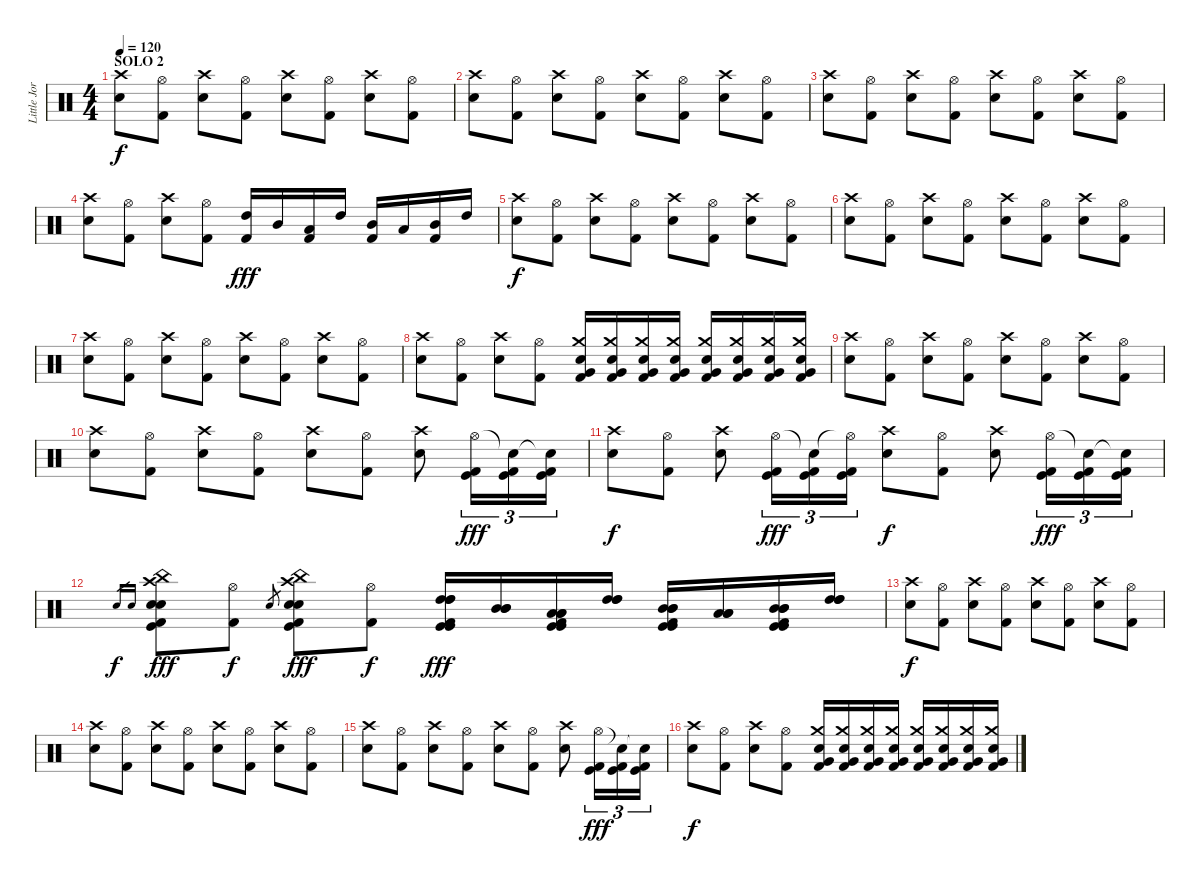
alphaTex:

\track ("Little Jordison" "Little Jor") {instrument percussion}
\staff {score}
\articulation defaults
\ts (4 4)
\section ("" "SOLO 2")
\tempo 120
\clef neutral
\ks c
("Crash high (hit)" "Electric Snare (hit)").8{dy f volume 13} ("Hi-Hat (open)" "Kick (hit) 2").8 ("Crash high (hit)" "Electric Snare (hit)").8 ("Hi-Hat (open)" "Kick (hit) 2").8 ("Crash high (hit)" "Electric Snare (hit)").8 ("Hi-Hat (open)" "Kick (hit) 2").8 ("Crash high (hit)" "Electric Snare (hit)").8 ("Hi-Hat (open)" "Kick (hit) 2").8 |
("Crash high (hit)" "Electric Snare (hit)").8 ("Hi-Hat (open)" "Kick (hit) 2").8 ("Crash high (hit)" "Electric Snare (hit)").8 ("Hi-Hat (open)" "Kick (hit) 2").8 ("Crash high (hit)" "Electric Snare (hit)").8 ("Hi-Hat (open)" "Kick (hit) 2").8 ("Crash high (hit)" "Electric Snare (hit)").8 ("Hi-Hat (open)" "Kick (hit) 2").8 |
("Crash high (hit)" "Electric Snare (hit)").8 ("Hi-Hat (open)" "Kick (hit) 2").8 ("Crash high (hit)" "Electric Snare (hit)").8 ("Hi-Hat (open)" "Kick (hit) 2").8 ("Crash high (hit)" "Electric Snare (hit)").8 ("Hi-Hat (open)" "Kick (hit) 2").8 ("Crash high (hit)" "Electric Snare (hit)").8 ("Hi-Hat (open)" "Kick (hit) 2").8 |
("Crash high (hit)" "Electric Snare (hit)").8 ("Hi-Hat (open)" "Kick (hit) 2").8 ("Crash high (hit)" "Electric Snare (hit)").8 ("Hi-Hat (open)" "Kick (hit) 2").8 ("High Tom (hit)" "Kick (hit) 2").16{dy fff} "Mid Tom (hit)".16 ("Low Tom (hit)" "Kick (hit) 2").16 "High Tom (hit)".16 ("Mid Tom (hit)" "Kick (hit) 2").16 "Low Tom (hit)".16 ("Mid Tom (hit)" "Kick (hit) 2").16 "High Tom (hit)".16 |
("Crash high (hit)" "Electric Snare (hit)").8{dy f} ("Hi-Hat (open)" "Kick (hit) 2").8 ("Crash high (hit)" "Electric Snare (hit)").8 ("Hi-Hat (open)" "Kick (hit) 2").8 ("Crash high (hit)" "Electric Snare (hit)").8 ("Hi-Hat (open)" "Kick (hit) 2").8 ("Crash high (hit)" "Electric Snare (hit)").8 ("Hi-Hat (open)" "Kick (hit) 2").8 |
("Crash high (hit)" "Electric Snare (hit)").8 ("Hi-Hat (open)" "Kick (hit) 2").8 ("Crash high (hit)" "Electric Snare (hit)").8 ("Hi-Hat (open)" "Kick (hit) 2").8 ("Crash high (hit)" "Electric Snare (hit)").8 ("Hi-Hat (open)" "Kick (hit) 2").8 ("Crash high (hit)" "Electric Snare (hit)").8 ("Hi-Hat (open)" "Kick (hit) 2").8 |
("Crash high (hit)" "Electric Snare (hit)").8 ("Hi-Hat (open)" "Kick (hit) 2").8 ("Crash high (hit)" "Electric Snare (hit)").8 ("Hi-Hat (open)" "Kick (hit) 2").8 ("Crash high (hit)" "Electric Snare (hit)").8 ("Hi-Hat (open)" "Kick (hit) 2").8 ("Crash high (hit)" "Electric Snare (hit)").8 ("Hi-Hat (open)" "Kick (hit) 2").8 |
("Crash high (hit)" "Electric Snare (hit)").8 ("Hi-Hat (open)" "Kick (hit) 2").8 ("Crash high (hit)" "Electric Snare (hit)").8 ("Hi-Hat (open)" "Kick (hit) 2").8 ("Crash medium (hit)" "Very Low Tom (hit)" "Electric Snare (hit)" "Kick (hit) 2").16 ("Crash medium (hit)" "Very Low Tom (hit)" "Electric Snare (hit)" "Kick (hit) 2").16 ("Crash medium (hit)" "Very Low Tom (hit)" "Electric Snare (hit)" "Kick (hit) 2").16 ("Crash medium (hit)" "Very Low Tom (hit)" "Electric Snare (hit)" "Kick (hit) 2").16 ("Crash medium (hit)" "Very Low Tom (hit)" "Electric Snare (hit)" "Kick (hit) 2").16 ("Crash medium (hit)" "Very Low Tom (hit)" "Electric Snare (hit)" "Kick (hit) 2").16 ("Crash medium (hit)" "Very Low Tom (hit)" "Electric Snare (hit)" "Kick (hit) 2").16 ("Crash medium (hit)" "Very Low Tom (hit)" "Electric Snare (hit)" "Kick (hit) 2").16 |
("Crash high (hit)" "Electric Snare (hit)").8{volume 13} ("Hi-Hat (open)" "Kick (hit) 2").8 ("Crash high (hit)" "Electric Snare (hit)").8 ("Hi-Hat (open)" "Kick (hit) 2").8 ("Crash high (hit)" "Electric Snare (hit)").8 ("Hi-Hat (open)" "Kick (hit) 2").8 ("Crash high (hit)" "Electric Snare (hit)").8 ("Hi-Hat (open)" "Kick (hit) 2").8 |
("Crash high (hit)" "Electric Snare (hit)").8 ("Hi-Hat (open)" "Kick (hit) 2").8 ("Crash high (hit)" "Electric Snare (hit)").8 ("Hi-Hat (open)" "Kick (hit) 2").8 ("Crash high (hit)" "Electric Snare (hit)").8 ("Hi-Hat (open)" "Kick (hit) 2").8 ("Crash high (hit)" "Electric Snare (hit)").8 ("Hi-Hat (open)" "Kick (hit)" "Kick (hit) 2").16{tu (3 2) dy fff} ("Snare (hit)"{t} "Kick (hit)" "Kick (hit) 2").16{tu (3 2)} ("Snare (hit)"{t} "Kick (hit)" "Kick (hit) 2").16{tu (3 2)} |
("Crash high (hit)" "Electric Snare (hit)").8{dy f} ("Hi-Hat (open)" "Kick (hit) 2").8 ("Crash high (hit)" "Electric Snare (hit)").8 ("Hi-Hat (open)" "Kick (hit)" "Kick (hit) 2").16{tu (3 2) dy fff} ("Snare (hit)"{t} "Kick (hit)" "Kick (hit) 2").16{tu (3 2)} ("Hi-Hat (open)"{t} "Kick (hit)" "Kick (hit) 2").16{tu (3 2)} ("Crash high (hit)" "Electric Snare (hit)").8{dy f} ("Hi-Hat (open)" "Kick (hit) 2").8 ("Crash high (hit)" "Electric Snare (hit)").8 ("Hi-Hat (open)" "Kick (hit)" "Kick (hit) 2").16{tu (3 2) dy fff} ("Snare (hit)"{t} "Kick (hit)" "Kick (hit) 2").16{tu (3 2)} ("Snare (hit)"{t} "Kick (hit)" "Kick (hit) 2").16{tu (3 2)} |
"Electric Snare (hit)".16{gr dy f} "Electric Snare (hit)".16{gr} ("Crash high (hit)" "China (hit)" "Kick (hit)" "Kick (hit) 2" "Electric Snare (hit)" "Electric Snare (hit)").8{dy fff} ("Hi-Hat (open)" "Kick (hit) 2").8{dy f} "Electric Snare (hit)".8{gr} ("Crash high (hit)" "China (hit)" "Kick (hit)" "Kick (hit) 2" "Electric Snare (hit)" "Electric Snare (hit)").8{dy fff} ("Hi-Hat (open)" "Kick (hit) 2").8{dy f} ("High Tom (hit)" "High Tom (hit)" "High Tom (hit)" "Kick (hit)" "Kick (hit)" "Kick (hit) 2").16{dy fff} ("Mid Tom (hit)" "Mid Tom (hit)" "Mid Tom (hit)").16 ("Low Tom (hit)" "Low Tom (hit)" "Low Tom (hit)" "Kick (hit)" "Kick (hit)" "Kick (hit) 2").16 ("High Tom (hit)" "High Tom (hit)" "High Tom (hit)").16 ("Mid Tom (hit)" "Mid Tom (hit)" "Mid Tom (hit)" "Kick (hit)" "Kick (hit)" "Kick (hit) 2").16 ("Low Tom (hit)" "Low Tom (hit)" "Low Tom (hit)").16 ("Mid Tom (hit)" "Mid Tom (hit)" "Mid Tom (hit)" "Kick (hit)" "Kick (hit)" "Kick (hit) 2").16 ("High Tom (hit)" "High Tom (hit)" "High Tom (hit)").16 |
("Crash high (hit)" "Electric Snare (hit)").8{dy f} ("Hi-Hat (open)" "Kick (hit) 2").8 ("Crash high (hit)" "Electric Snare (hit)").8 ("Hi-Hat (open)" "Kick (hit) 2").8 ("Crash high (hit)" "Electric Snare (hit)").8 ("Hi-Hat (open)" "Kick (hit) 2").8 ("Crash high (hit)" "Electric Snare (hit)").8 ("Hi-Hat (open)" "Kick (hit) 2").8 |
("Crash high (hit)" "Electric Snare (hit)").8 ("Hi-Hat (open)" "Kick (hit) 2").8 ("Crash high (hit)" "Electric Snare (hit)").8 ("Hi-Hat (open)" "Kick (hit) 2").8 ("Crash high (hit)" "Electric Snare (hit)").8 ("Hi-Hat (open)" "Kick (hit) 2").8 ("Crash high (hit)" "Electric Snare (hit)").8 ("Hi-Hat (open)" "Kick (hit) 2").8 |
("Crash high (hit)" "Electric Snare (hit)").8 ("Hi-Hat (open)" "Kick (hit) 2").8 ("Crash high (hit)" "Electric Snare (hit)").8 ("Hi-Hat (open)" "Kick (hit) 2").8 ("Crash high (hit)" "Electric Snare (hit)").8 ("Hi-Hat (open)" "Kick (hit) 2").8 ("Crash high (hit)" "Electric Snare (hit)").8 ("Hi-Hat (open)" "Kick (hit)" "Kick (hit) 2").16{tu (3 2) dy fff} ("Snare (hit)"{t} "Kick (hit)" "Kick (hit) 2").16{tu (3 2)} ("Snare (hit)"{t} "Kick (hit)" "Kick (hit) 2").16{tu (3 2)} |
("Crash high (hit)" "Electric Snare (hit)").8{dy f} ("Hi-Hat (open)" "Kick (hit) 2").8 ("Crash high (hit)" "Electric Snare (hit)").8 ("Hi-Hat (open)" "Kick (hit) 2").8 ("Crash medium (hit)" "Very Low Tom (hit)" "Electric Snare (hit)" "Kick (hit) 2").16 ("Crash medium (hit)" "Very Low Tom (hit)" "Electric Snare (hit)" "Kick (hit) 2").16 ("Crash medium (hit)" "Very Low Tom (hit)" "Electric Snare (hit)" "Kick (hit) 2").16 ("Crash medium (hit)" "Very Low Tom (hit)" "Electric Snare (hit)" "Kick (hit) 2").16 ("Crash medium (hit)" "Very Low Tom (hit)" "Electric Snare (hit)" "Kick (hit) 2").16 ("Crash medium (hit)" "Very Low Tom (hit)" "Electric Snare (hit)" "Kick (hit) 2").16 ("Crash medium (hit)" "Very Low Tom (hit)" "Electric Snare (hit)" "Kick (hit) 2").16 ("Crash medium (hit)" "Very Low Tom (hit)" "Electric Snare (hit)" "Kick (hit) 2").16
